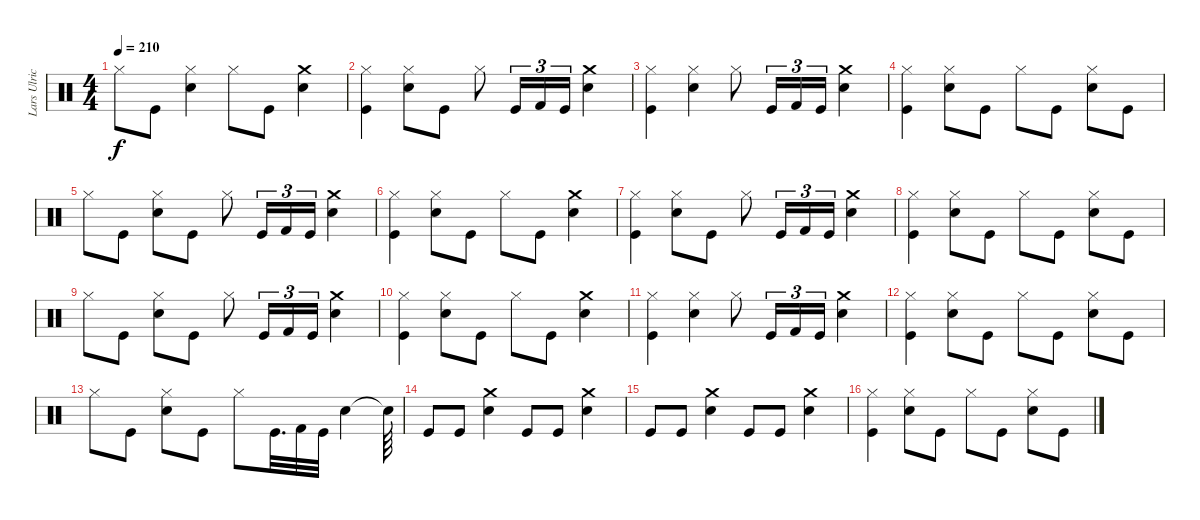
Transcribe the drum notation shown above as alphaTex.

\track ("Lars Ulrich (Drums)" "Lars Ulric") {instrument percussion}
\staff {score}
\articulation defaults
\ts (4 4)
\tempo 210
\clef neutral
\ks c "Hi-Hat (closed)".8{dy f} "Kick (hit)".8
("Snare (hit) 2" "Hi-Hat (closed)").4 "Hi-Hat (closed)".8 "Kick (hit)".8 ("Crash medium (hit)" "Snare (hit) 2").4 |
("Kick (hit)" "Hi-Hat (closed)").4 ("Snare (hit) 2" "Hi-Hat (closed)").8 "Kick (hit)".8 "Hi-Hat (closed)".8 "Kick (hit)".16{tu (3 2)} "Kick (hit) 2".16{tu (3 2)} "Kick (hit)".16{tu (3 2)} ("Crash medium (hit)" "Snare (hit) 2").4 |
("Hi-Hat (closed)" "Kick (hit)").4 ("Snare (hit) 2" "Hi-Hat (closed)").4 "Hi-Hat (closed)".8 "Kick (hit)".16{tu (3 2)} "Kick (hit) 2".16{tu (3 2)} "Kick (hit)".16{tu (3 2)} ("Crash medium (hit)" "Snare (hit) 2").4 |
("Hi-Hat (closed)" "Kick (hit)").4 ("Snare (hit) 2" "Hi-Hat (closed)").8 "Kick (hit)".8 "Hi-Hat (closed)".8 "Kick (hit)".8 ("Snare (hit) 2" "Hi-Hat (closed)").8 "Kick (hit)".8 |
"Hi-Hat (closed)".8 "Kick (hit)".8 ("Snare (hit) 2" "Hi-Hat (closed)").8 "Kick (hit)".8 "Hi-Hat (closed)".8 "Kick (hit)".16{tu (3 2)} "Kick (hit) 2".16{tu (3 2)} "Kick (hit)".16{tu (3 2)} ("Crash medium (hit)" "Snare (hit) 2").4 |
("Hi-Hat (closed)" "Kick (hit)").4 ("Snare (hit) 2" "Hi-Hat (closed)").8 "Kick (hit)".8 "Hi-Hat (closed)".8 "Kick (hit)".8 ("Crash medium (hit)" "Snare (hit) 2").4 |
("Kick (hit)" "Hi-Hat (closed)").4 ("Snare (hit) 2" "Hi-Hat (closed)").8 "Kick (hit)".8 "Hi-Hat (closed)".8 "Kick (hit)".16{tu (3 2)} "Kick (hit) 2".16{tu (3 2)} "Kick (hit)".16{tu (3 2)} ("Crash medium (hit)" "Snare (hit) 2").4 |
("Hi-Hat (closed)" "Kick (hit)").4 ("Snare (hit) 2" "Hi-Hat (closed)").8 "Kick (hit)".8 "Hi-Hat (closed)".8 "Kick (hit)".8 ("Snare (hit) 2" "Hi-Hat (closed)").8 "Kick (hit)".8 |
"Hi-Hat (closed)".8 "Kick (hit)".8 ("Snare (hit) 2" "Hi-Hat (closed)").8 "Kick (hit)".8 "Hi-Hat (closed)".8 "Kick (hit)".16{tu (3 2)} "Kick (hit) 2".16{tu (3 2)} "Kick (hit)".16{tu (3 2)} ("Crash medium (hit)" "Snare (hit) 2").4 |
("Hi-Hat (closed)" "Kick (hit)").4 ("Snare (hit) 2" "Hi-Hat (closed)").8 "Kick (hit)".8 "Hi-Hat (closed)".8 "Kick (hit)".8 ("Crash medium (hit)" "Snare (hit) 2").4 |
("Hi-Hat (closed)" "Kick (hit)").4 ("Snare (hit) 2" "Hi-Hat (closed)").4 "Hi-Hat (closed)".8 "Kick (hit)".16{tu (3 2)} "Kick (hit) 2".16{tu (3 2)} "Kick (hit)".16{tu (3 2)} ("Crash medium (hit)" "Snare (hit) 2").4 |
("Hi-Hat (closed)" "Kick (hit)").4 ("Hi-Hat (closed)" "Snare (hit) 2").8 "Kick (hit)".8 "Hi-Hat (closed)".8 "Kick (hit)".8 ("Snare (hit) 2" "Hi-Hat (closed)").8 "Kick (hit)".8 |
"Hi-Hat (closed)".8 "Kick (hit)".8 ("Snare (hit) 2" "Hi-Hat (closed)").8 "Kick (hit)".8 "Hi-Hat (closed)".8 "Kick (hit)".32{d} "Kick (hit) 2".32 "Kick (hit)".32 "Snare (hit) 2".4 "Snare (hit)"{t}.64 |
"Kick (hit)".8 "Kick (hit)".8 ("Crash medium (hit)" "Snare (hit) 2").4 "Kick (hit)".8 "Kick (hit)".8 ("Snare (hit) 2" "Crash medium (hit)").4 |
"Kick (hit)".8 "Kick (hit)".8 ("Snare (hit) 2" "Crash medium (hit)").4 "Kick (hit)".8 "Kick (hit)".8 ("Snare (hit) 2" "Crash medium (hit)").4 |
("Hi-Hat (closed)" "Kick (hit)").4 ("Snare (hit) 2" "Hi-Hat (closed)").8 "Kick (hit)".8 "Hi-Hat (closed)".8 "Kick (hit)".8 ("Snare (hit) 2" "Hi-Hat (closed)").8 "Kick (hit)".8
